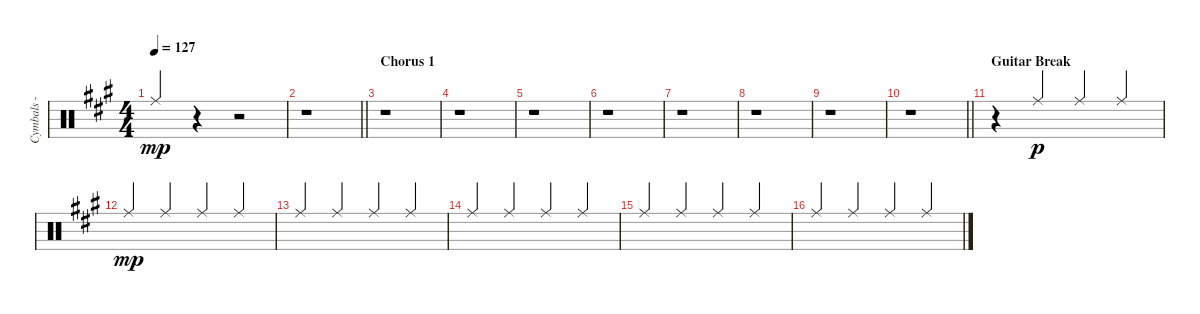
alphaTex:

\track ("Cymbals - ride" "Cymbals - ") {instrument percussion}
\staff {score}
\articulation defaults
\ts (4 4)
\tempo 127
\clef neutral
\ks a "Ride (middle)".4{dy mp beam Up}
r.4 r.2 |
\barLineRight lightlight
r.1 |
\section ("" "Chorus 1")
r.1 |
r.1 |
r.1 |
r.1 |
r.1 |
r.1 |
r.1 |
\barLineRight lightlight
r.1 |
\section ("" "Guitar Break")
r.4 "Ride (middle)".4{dy p beam Up} "Ride (middle)".4{beam Up} "Ride (middle)".4{beam Up} |
"Ride (middle)".4{dy mp beam Up} "Ride (middle)".4{beam Up} "Ride (middle)".4{beam Up} "Ride (middle)".4{beam Up} |
"Ride (middle)".4{beam Up} "Ride (middle)".4{beam Up} "Ride (middle)".4{beam Up} "Ride (middle)".4{beam Up} |
"Ride (middle)".4{beam Up} "Ride (middle)".4{beam Up} "Ride (middle)".4{beam Up} "Ride (middle)".4{beam Up} |
"Ride (middle)".4{beam Up} "Ride (middle)".4{beam Up} "Ride (middle)".4{beam Up} "Ride (middle)".4{beam Up} |
"Ride (middle)".4{beam Up} "Ride (middle)".4{beam Up} "Ride (middle)".4{beam Up} "Ride (middle)".4{beam Up}
